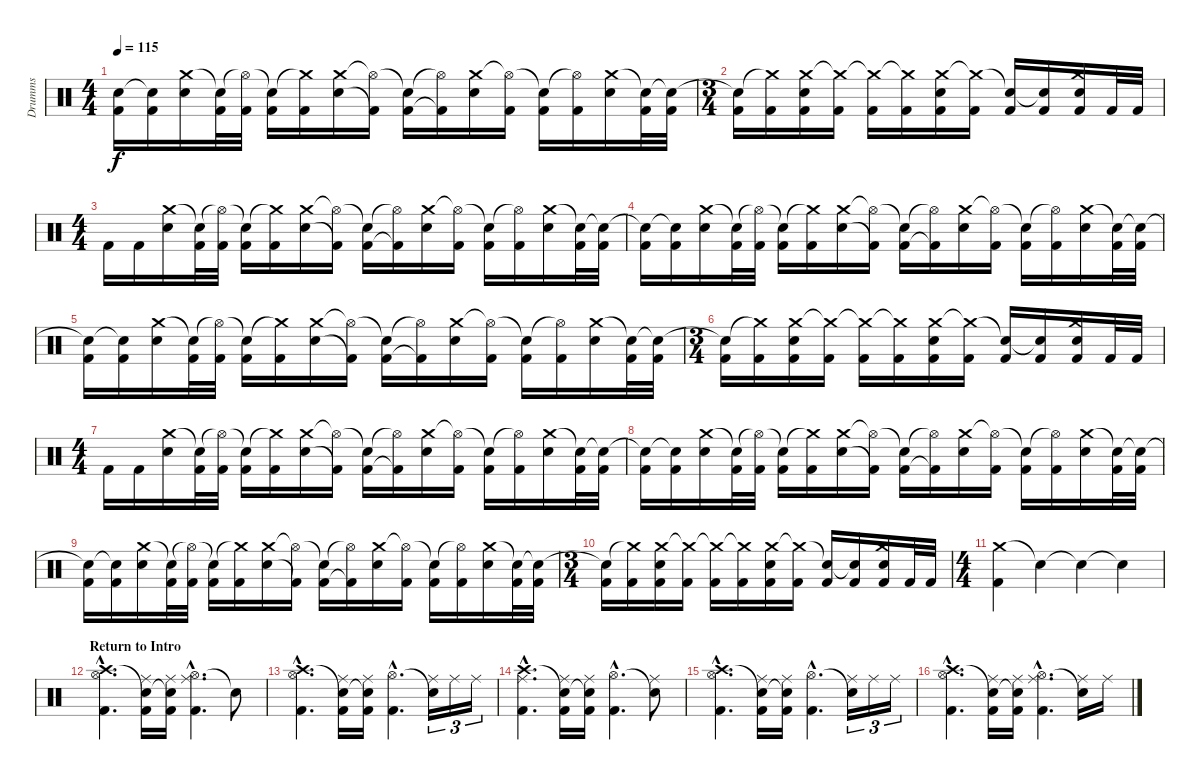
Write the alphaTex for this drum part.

\track ("Drumms" "Drumms") {instrument percussion}
\staff {score}
\articulation defaults
\ts (4 4)
\tempo 115
\clef neutral
\ks c
("Snare (hit)"{t} "Kick (hit) 2").16{dy f} ("Snare (hit)"{t} "Kick (hit) 2").16 ("Crash medium (hit)" "Electric Snare (hit)").16 ("Snare (hit)"{t} "Kick (hit) 2").32 ("Hi-Hat (open)"{t} "Kick (hit) 2").32 ("Snare (hit)"{t} "Kick (hit) 2").16 ("Crash medium (hit)"{t} "Kick (hit) 2").16 ("Crash medium (hit)" "Electric Snare (hit)").16 ("Hi-Hat (open)"{t} "Kick (hit) 2"{t}).16 ("Snare (hit)"{t} "Kick (hit) 2").16 ("Hi-Hat (open)"{t} "Kick (hit) 2"{t}).16 ("Crash medium (hit)" "Electric Snare (hit)").16 ("Hi-Hat (open)"{t} "Kick (hit) 2").16 ("Snare (hit)"{t} "Kick (hit) 2").16 ("Hi-Hat (open)"{t} "Kick (hit) 2").16 ("Crash medium (hit)" "Electric Snare (hit)").16 ("Snare (hit)"{t} "Kick (hit) 2").32 ("Snare (hit)"{t} "Kick (hit) 2").32 |
\ts (3 4)
("Snare (hit)"{t} "Kick (hit) 2").16 ("Crash medium (hit)"{t} "Kick (hit) 2").16 ("Crash medium (hit)" "Kick (hit) 2" "Electric Snare (hit)").16 ("Crash medium (hit)"{t} "Kick (hit) 2").16 ("Crash medium (hit)"{t} "Kick (hit) 2").16 ("Crash medium (hit)"{t} "Kick (hit) 2").16 ("Crash medium (hit)" "Kick (hit) 2" "Electric Snare (hit)").16 ("Crash medium (hit)"{t} "Kick (hit) 2").16 ("Snare (hit)"{t} "Kick (hit) 2").16 ("Snare (hit)"{t} "Kick (hit) 2").16 ("Crash medium (hit)" "Kick (hit) 2" "Electric Snare (hit)").16 "Kick (hit) 2".32 "Kick (hit) 2".32 |
\ts (4 4)
"Kick (hit) 2".16 "Kick (hit) 2".16 ("Crash medium (hit)" "Electric Snare (hit)").16 ("Snare (hit)"{t} "Kick (hit) 2").32 ("Hi-Hat (open)"{t} "Kick (hit) 2").32 ("Snare (hit)"{t} "Kick (hit) 2").16 ("Crash medium (hit)"{t} "Kick (hit) 2").16 ("Crash medium (hit)" "Electric Snare (hit)").16 ("Hi-Hat (open)"{t} "Kick (hit) 2"{t}).16 ("Snare (hit)"{t} "Kick (hit) 2").16 ("Hi-Hat (open)"{t} "Kick (hit) 2"{t}).16 ("Crash medium (hit)" "Electric Snare (hit)").16 ("Hi-Hat (open)"{t} "Kick (hit) 2").16 ("Snare (hit)"{t} "Kick (hit) 2").16 ("Hi-Hat (open)"{t} "Kick (hit) 2").16 ("Crash medium (hit)" "Electric Snare (hit)").16 ("Snare (hit)"{t} "Kick (hit) 2").32 ("Snare (hit)"{t} "Kick (hit) 2").32 |
("Snare (hit)"{t} "Kick (hit) 2").16 ("Snare (hit)"{t} "Kick (hit) 2").16 ("Crash medium (hit)" "Electric Snare (hit)").16 ("Snare (hit)"{t} "Kick (hit) 2").32 ("Hi-Hat (open)"{t} "Kick (hit) 2").32 ("Snare (hit)"{t} "Kick (hit) 2").16 ("Crash medium (hit)"{t} "Kick (hit) 2").16 ("Crash medium (hit)" "Electric Snare (hit)").16 ("Hi-Hat (open)"{t} "Kick (hit) 2"{t}).16 ("Snare (hit)"{t} "Kick (hit) 2").16 ("Hi-Hat (open)"{t} "Kick (hit) 2"{t}).16 ("Crash medium (hit)" "Electric Snare (hit)").16 ("Hi-Hat (open)"{t} "Kick (hit) 2").16 ("Snare (hit)"{t} "Kick (hit) 2").16 ("Hi-Hat (open)"{t} "Kick (hit) 2").16 ("Crash medium (hit)" "Electric Snare (hit)").16 ("Snare (hit)"{t} "Kick (hit) 2").32 ("Snare (hit)"{t} "Kick (hit) 2").32 |
("Snare (hit)"{t} "Kick (hit) 2").16 ("Snare (hit)"{t} "Kick (hit) 2").16 ("Crash medium (hit)" "Electric Snare (hit)").16 ("Snare (hit)"{t} "Kick (hit) 2").32 ("Hi-Hat (open)"{t} "Kick (hit) 2").32 ("Snare (hit)"{t} "Kick (hit) 2").16 ("Crash medium (hit)"{t} "Kick (hit) 2").16 ("Crash medium (hit)" "Electric Snare (hit)").16 ("Hi-Hat (open)"{t} "Kick (hit) 2"{t}).16 ("Snare (hit)"{t} "Kick (hit) 2").16 ("Hi-Hat (open)"{t} "Kick (hit) 2"{t}).16 ("Crash medium (hit)" "Electric Snare (hit)").16 ("Hi-Hat (open)"{t} "Kick (hit) 2").16 ("Snare (hit)"{t} "Kick (hit) 2").16 ("Hi-Hat (open)"{t} "Kick (hit) 2").16 ("Crash medium (hit)" "Electric Snare (hit)").16 ("Snare (hit)"{t} "Kick (hit) 2").32 ("Snare (hit)"{t} "Kick (hit) 2").32 |
\ts (3 4)
("Snare (hit)"{t} "Kick (hit) 2").16 ("Crash medium (hit)"{t} "Kick (hit) 2").16 ("Crash medium (hit)" "Kick (hit) 2" "Electric Snare (hit)").16 ("Crash medium (hit)"{t} "Kick (hit) 2").16 ("Crash medium (hit)"{t} "Kick (hit) 2").16 ("Crash medium (hit)"{t} "Kick (hit) 2").16 ("Crash medium (hit)" "Kick (hit) 2" "Electric Snare (hit)").16 ("Crash medium (hit)"{t} "Kick (hit) 2").16 ("Snare (hit)"{t} "Kick (hit) 2").16 ("Snare (hit)"{t} "Kick (hit) 2").16 ("Crash medium (hit)" "Kick (hit) 2" "Electric Snare (hit)").16 "Kick (hit) 2".32 "Kick (hit) 2".32 |
\ts (4 4)
"Kick (hit) 2".16 "Kick (hit) 2".16 ("Crash medium (hit)" "Electric Snare (hit)").16 ("Snare (hit)"{t} "Kick (hit) 2").32 ("Hi-Hat (open)"{t} "Kick (hit) 2").32 ("Snare (hit)"{t} "Kick (hit) 2").16 ("Crash medium (hit)"{t} "Kick (hit) 2").16 ("Crash medium (hit)" "Electric Snare (hit)").16 ("Hi-Hat (open)"{t} "Kick (hit) 2"{t}).16 ("Snare (hit)"{t} "Kick (hit) 2").16 ("Hi-Hat (open)"{t} "Kick (hit) 2"{t}).16 ("Crash medium (hit)" "Electric Snare (hit)").16 ("Hi-Hat (open)"{t} "Kick (hit) 2").16 ("Snare (hit)"{t} "Kick (hit) 2").16 ("Hi-Hat (open)"{t} "Kick (hit) 2").16 ("Crash medium (hit)" "Electric Snare (hit)").16 ("Snare (hit)"{t} "Kick (hit) 2").32 ("Snare (hit)"{t} "Kick (hit) 2").32 |
("Snare (hit)"{t} "Kick (hit) 2").16 ("Snare (hit)"{t} "Kick (hit) 2").16 ("Crash medium (hit)" "Electric Snare (hit)").16 ("Snare (hit)"{t} "Kick (hit) 2").32 ("Hi-Hat (open)"{t} "Kick (hit) 2").32 ("Snare (hit)"{t} "Kick (hit) 2").16 ("Crash medium (hit)"{t} "Kick (hit) 2").16 ("Crash medium (hit)" "Electric Snare (hit)").16 ("Hi-Hat (open)"{t} "Kick (hit) 2"{t}).16 ("Snare (hit)"{t} "Kick (hit) 2").16 ("Hi-Hat (open)"{t} "Kick (hit) 2"{t}).16 ("Crash medium (hit)" "Electric Snare (hit)").16 ("Hi-Hat (open)"{t} "Kick (hit) 2").16 ("Snare (hit)"{t} "Kick (hit) 2").16 ("Hi-Hat (open)"{t} "Kick (hit) 2").16 ("Crash medium (hit)" "Electric Snare (hit)").16 ("Snare (hit)"{t} "Kick (hit) 2").32 ("Snare (hit)"{t} "Kick (hit) 2").32 |
("Snare (hit)"{t} "Kick (hit) 2").16 ("Snare (hit)"{t} "Kick (hit) 2").16 ("Crash medium (hit)" "Electric Snare (hit)").16 ("Snare (hit)"{t} "Kick (hit) 2").32 ("Hi-Hat (open)"{t} "Kick (hit) 2").32 ("Snare (hit)"{t} "Kick (hit) 2").16 ("Crash medium (hit)"{t} "Kick (hit) 2").16 ("Crash medium (hit)" "Electric Snare (hit)").16 ("Hi-Hat (open)"{t} "Kick (hit) 2"{t}).16 ("Snare (hit)"{t} "Kick (hit) 2").16 ("Hi-Hat (open)"{t} "Kick (hit) 2"{t}).16 ("Crash medium (hit)" "Electric Snare (hit)").16 ("Hi-Hat (open)"{t} "Kick (hit) 2").16 ("Snare (hit)"{t} "Kick (hit) 2").16 ("Hi-Hat (open)"{t} "Kick (hit) 2").16 ("Crash medium (hit)" "Electric Snare (hit)").16 ("Snare (hit)"{t} "Kick (hit) 2").32 ("Snare (hit)"{t} "Kick (hit) 2").32 |
\ts (3 4)
("Snare (hit)"{t} "Kick (hit) 2").16 ("Crash medium (hit)"{t} "Kick (hit) 2").16 ("Crash medium (hit)" "Kick (hit) 2" "Electric Snare (hit)").16 ("Crash medium (hit)"{t} "Kick (hit) 2").16 ("Crash medium (hit)"{t} "Kick (hit) 2").16 ("Crash medium (hit)"{t} "Kick (hit) 2").16 ("Crash medium (hit)" "Kick (hit) 2" "Electric Snare (hit)").16 ("Crash medium (hit)"{t} "Kick (hit) 2").16 ("Snare (hit)"{t} "Kick (hit) 2").16 ("Snare (hit)"{t} "Kick (hit) 2").16 ("Crash medium (hit)" "Kick (hit) 2" "Electric Snare (hit)").16 "Kick (hit) 2".32 "Kick (hit) 2".32 |
\ts (4 4)
("Crash medium (hit)" "Kick (hit) 2").4 "Snare (hit)"{t}.4 "Snare (hit)"{t}.4 "Snare (hit)"{t}.4 |
\section ("" "Return to Intro")
("Crash high (hit)"{hac} "Hi-Hat (open)"{hac} "Kick (hit) 2"{hac}).4{d} ("Snare (hit)"{t} "Kick (hit) 2" "Ride (middle)").16 ("Snare (hit)"{t} "Kick (hit) 2" "Ride (middle)").16 ("Hi-Hat (open)"{hac} "Kick (hit) 2"{hac} "Ride (middle)"{hac}).4{d} "Snare (hit)"{t}.8 |
("Crash high (hit)"{hac} "Hi-Hat (open)"{hac} "Kick (hit) 2"{hac}).4{d} ("Snare (hit)"{t} "Kick (hit) 2" "Ride (middle)").16 ("Snare (hit)"{t} "Kick (hit) 2" "Ride (middle)").16 ("Hi-Hat (open)"{hac} "Kick (hit) 2"{hac}).4{d} ("Snare (hit)"{t} "Ride (middle)").16{tu (3 2)} "Ride (middle)".16{tu (3 2)} "Ride (middle)".16{tu (3 2)} |
("Crash high (hit)"{hac} "Ride (middle)"{hac} "Kick (hit) 2"{hac}).4{d} ("Snare (hit)"{t} "Kick (hit) 2" "Ride (middle)").16 ("Snare (hit)"{t} "Kick (hit) 2" "Ride (middle)").16 ("Hi-Hat (open)"{hac} "Kick (hit) 2"{hac}).4{d} ("Snare (hit)"{t} "Ride (middle)").8 |
("Crash high (hit)"{hac} "Hi-Hat (open)"{hac} "Kick (hit) 2"{hac}).4{d} ("Snare (hit)"{t} "Kick (hit) 2" "Ride (middle)").16 ("Snare (hit)"{t} "Kick (hit) 2" "Ride (middle)").16 ("Hi-Hat (open)"{hac} "Kick (hit) 2"{hac}).4{d} ("Snare (hit)"{t} "Ride (middle)").16{tu (3 2)} "Ride (middle)".16{tu (3 2)} "Ride (middle)".16{tu (3 2)} |
("Crash high (hit)"{hac} "Hi-Hat (open)"{hac} "Kick (hit) 2"{hac}).4{d} ("Snare (hit)"{t} "Kick (hit) 2" "Ride (middle)").16 ("Snare (hit)"{t} "Kick (hit) 2" "Ride (middle)").16 ("Hi-Hat (open)"{hac} "Kick (hit) 2"{hac} "Ride (middle)"{hac}).4{d} ("Snare (hit)"{t} "Ride (middle)").16 "Ride (middle)".16
